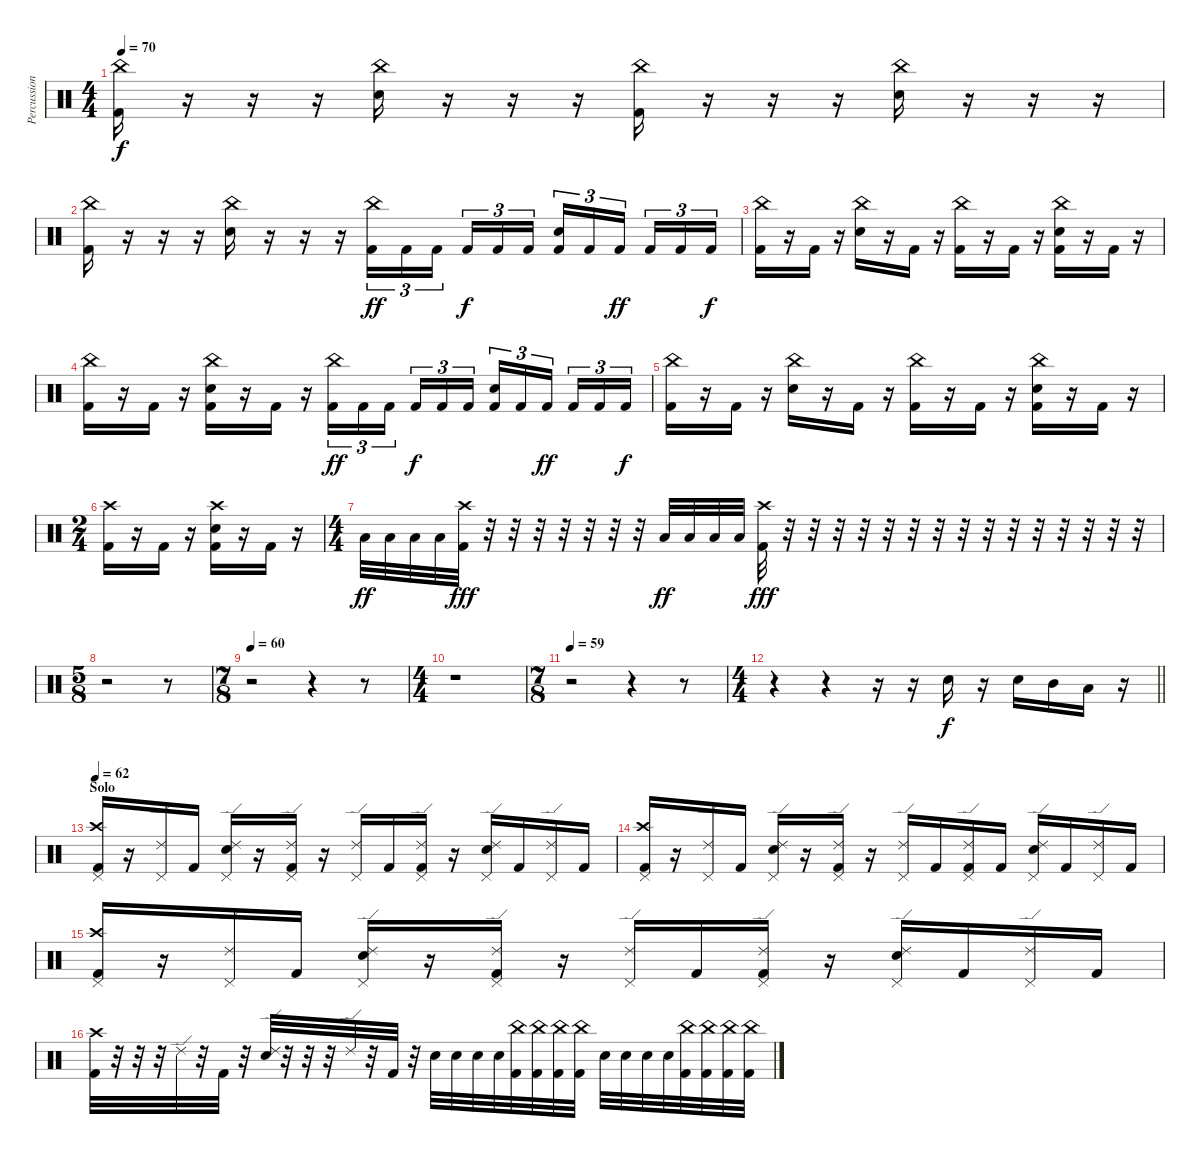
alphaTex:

\track ("Percussion" "Percussion") {instrument percussion}
\staff {score}
\articulation defaults
\ts (4 4)
\tempo 70
\clef neutral
\ks c
("China (hit)" "Kick (hit) 2").16{dy f} r.16 r.16 r.16 ("China (hit)" "Snare (hit) 2").16 r.16 r.16 r.16 ("China (hit)" "Kick (hit) 2").16 r.16 r.16 r.16 ("China (hit)" "Snare (hit) 2").16 r.16 r.16 r.16 |
("China (hit)" "Kick (hit) 2").16 r.16 r.16 r.16 ("China (hit)" "Snare (hit) 2").16 r.16 r.16 r.16 ("China (hit)" "Kick (hit) 2").16{tu (3 2) dy ff} "Kick (hit) 2".16{tu (3 2)} "Kick (hit) 2".16{tu (3 2) beam splitsecondary} "Kick (hit) 2".16{tu (3 2) dy f} "Kick (hit) 2".16{tu (3 2)} "Kick (hit) 2".16{tu (3 2)} ("Snare (hit) 2" "Kick (hit) 2").16{tu (3 2)} "Kick (hit) 2".16{tu (3 2)} "Kick (hit) 2".16{tu (3 2) dy ff beam splitsecondary} "Kick (hit) 2".16{tu (3 2)} "Kick (hit) 2".16{tu (3 2)} "Kick (hit) 2".16{tu (3 2) dy f} |
("China (hit)" "Kick (hit) 2").16 r.16 "Kick (hit) 2".16 r.16 ("China (hit)" "Snare (hit) 2").16 r.16 "Kick (hit) 2".16 r.16 ("China (hit)" "Kick (hit) 2").16 r.16 "Kick (hit) 2".16 r.16 ("China (hit)" "Snare (hit) 2" "Kick (hit) 2").16 r.16 "Kick (hit) 2".16 r.16 |
("China (hit)" "Kick (hit) 2").16 r.16 "Kick (hit) 2".16 r.16 ("China (hit)" "Snare (hit) 2" "Kick (hit) 2").16 r.16 "Kick (hit) 2".16 r.16 ("China (hit)" "Kick (hit) 2").16{tu (3 2) dy ff} "Kick (hit) 2".16{tu (3 2)} "Kick (hit) 2".16{tu (3 2) beam splitsecondary} "Kick (hit) 2".16{tu (3 2) dy f} "Kick (hit) 2".16{tu (3 2)} "Kick (hit) 2".16{tu (3 2)} ("Snare (hit) 2" "Kick (hit) 2").16{tu (3 2)} "Kick (hit) 2".16{tu (3 2)} "Kick (hit) 2".16{tu (3 2) dy ff beam splitsecondary} "Kick (hit) 2".16{tu (3 2)} "Kick (hit) 2".16{tu (3 2)} "Kick (hit) 2".16{tu (3 2) dy f} |
("China (hit)" "Kick (hit) 2").16 r.16 "Kick (hit) 2".16 r.16 ("China (hit)" "Snare (hit) 2").16 r.16 "Kick (hit) 2".16 r.16 ("China (hit)" "Kick (hit) 2").16 r.16 "Kick (hit) 2".16 r.16 ("China (hit)" "Snare (hit) 2" "Kick (hit) 2").16 r.16 "Kick (hit) 2".16 r.16 |
\ts (2 4)
("Crash high (hit)" "Kick (hit) 2").16 r.16 "Kick (hit) 2".16 r.16 ("Crash high (hit)" "Snare (hit) 2" "Kick (hit) 2").16 r.16 "Kick (hit) 2".16 r.16 |
\ts (4 4)
"Low Floor Tom (hit)".32{dy ff} "Low Floor Tom (hit)".32 "Low Floor Tom (hit)".32 "Low Floor Tom (hit)".32 ("Crash high (hit)" "Kick (hit) 2").32{dy fff} r.32 r.32 r.32 r.32 r.32 r.32 r.32 "Low Floor Tom (hit)".32{dy ff} "Low Floor Tom (hit)".32 "Low Floor Tom (hit)".32 "Low Floor Tom (hit)".32 ("Crash high (hit)" "Kick (hit) 2").32{dy fff} r.32 r.32 r.32 r.32 r.32 r.32 r.32 r.32 r.32 r.32 r.32 r.32 r.32 r.32 r.32 |
\ts (5 8)
r.2 r.8 |
\ts (7 8)
\tempo 60
r.2 r.4 r.8 |
\ts (4 4)
r.1 |
\ts (7 8)
\tempo 59
r.2 r.4 r.8 |
\ts (4 4)
\barLineRight lightlight
r.4 r.4 r.16 r.16 "Snare (hit) 2".16{dy f} r.16 "Snare (hit) 2".16 "Mid Tom (hit)".16 "Low Tom (hit)".16 r.16 |
\section ("" "Solo")
\tempo 62
("Crash high (hit)" "Pedal Hi-Hat (hit)" "Kick (hit) 2").16 r.16 ("Pedal Hi-Hat (hit)" "Ride (edge) 2").16 "Kick (hit) 2".16 ("Pedal Hi-Hat (hit)" "Ride (edge) 2" "Snare (hit) 2").16 r.16 ("Pedal Hi-Hat (hit)" "Ride (edge) 2" "Kick (hit) 2").16 r.16 ("Ride (edge) 2" "Pedal Hi-Hat (hit)").16 "Kick (hit) 2".16 ("Kick (hit) 2" "Ride (edge) 2" "Pedal Hi-Hat (hit)").16 r.16 ("Pedal Hi-Hat (hit)" "Ride (edge) 2" "Snare (hit) 2").16 "Kick (hit) 2".16 ("Pedal Hi-Hat (hit)" "Ride (edge) 2").16 "Kick (hit) 2".16 |
("Crash high (hit)" "Pedal Hi-Hat (hit)" "Kick (hit) 2").16 r.16 ("Pedal Hi-Hat (hit)" "Ride (edge) 2").16 "Kick (hit) 2".16 ("Pedal Hi-Hat (hit)" "Ride (edge) 2" "Snare (hit) 2").16 r.16 ("Pedal Hi-Hat (hit)" "Ride (edge) 2" "Kick (hit) 2").16 r.16 ("Ride (edge) 2" "Pedal Hi-Hat (hit)").16 "Kick (hit) 2".16 ("Kick (hit) 2" "Ride (edge) 2" "Pedal Hi-Hat (hit)").16 "Kick (hit) 2".16 ("Pedal Hi-Hat (hit)" "Ride (edge) 2" "Snare (hit) 2").16 "Kick (hit) 2".16 ("Pedal Hi-Hat (hit)" "Ride (edge) 2").16 "Kick (hit) 2".16 |
("Crash high (hit)" "Pedal Hi-Hat (hit)" "Kick (hit) 2").16 r.16 ("Pedal Hi-Hat (hit)" "Ride (edge) 2").16 "Kick (hit) 2".16 ("Pedal Hi-Hat (hit)" "Ride (edge) 2" "Snare (hit) 2").16 r.16 ("Pedal Hi-Hat (hit)" "Ride (edge) 2" "Kick (hit) 2").16 r.16 ("Ride (edge) 2" "Pedal Hi-Hat (hit)").16 "Kick (hit) 2".16 ("Kick (hit) 2" "Ride (edge) 2" "Pedal Hi-Hat (hit)").16 r.16 ("Pedal Hi-Hat (hit)" "Ride (edge) 2" "Snare (hit) 2").16 "Kick (hit) 2".16 ("Pedal Hi-Hat (hit)" "Ride (edge) 2").16 "Kick (hit) 2".16 |
("Crash high (hit)" "Kick (hit) 2").32 r.32 r.32 r.32 "Ride (edge) 2".32 r.32 "Kick (hit) 2".32 r.32 ("Ride (edge) 2" "Snare (hit) 2").32 r.32 r.32 r.32 "Ride (edge) 2".32 r.32 "Kick (hit) 2".32 r.32 "Snare (hit) 2".32 "Snare (hit) 2".32 "Snare (hit) 2".32 "Snare (hit) 2".32 ("China (hit)" "Kick (hit) 2").32 ("China (hit)" "Kick (hit) 2").32 ("China (hit)" "Kick (hit) 2").32 ("China (hit)" "Kick (hit) 2").32 "Snare (hit) 2".32 "Snare (hit) 2".32 "Snare (hit) 2".32 "Snare (hit) 2".32 ("China (hit)" "Kick (hit) 2").32 ("China (hit)" "Kick (hit) 2").32 ("China (hit)" "Kick (hit) 2").32 ("China (hit)" "Kick (hit) 2").32
